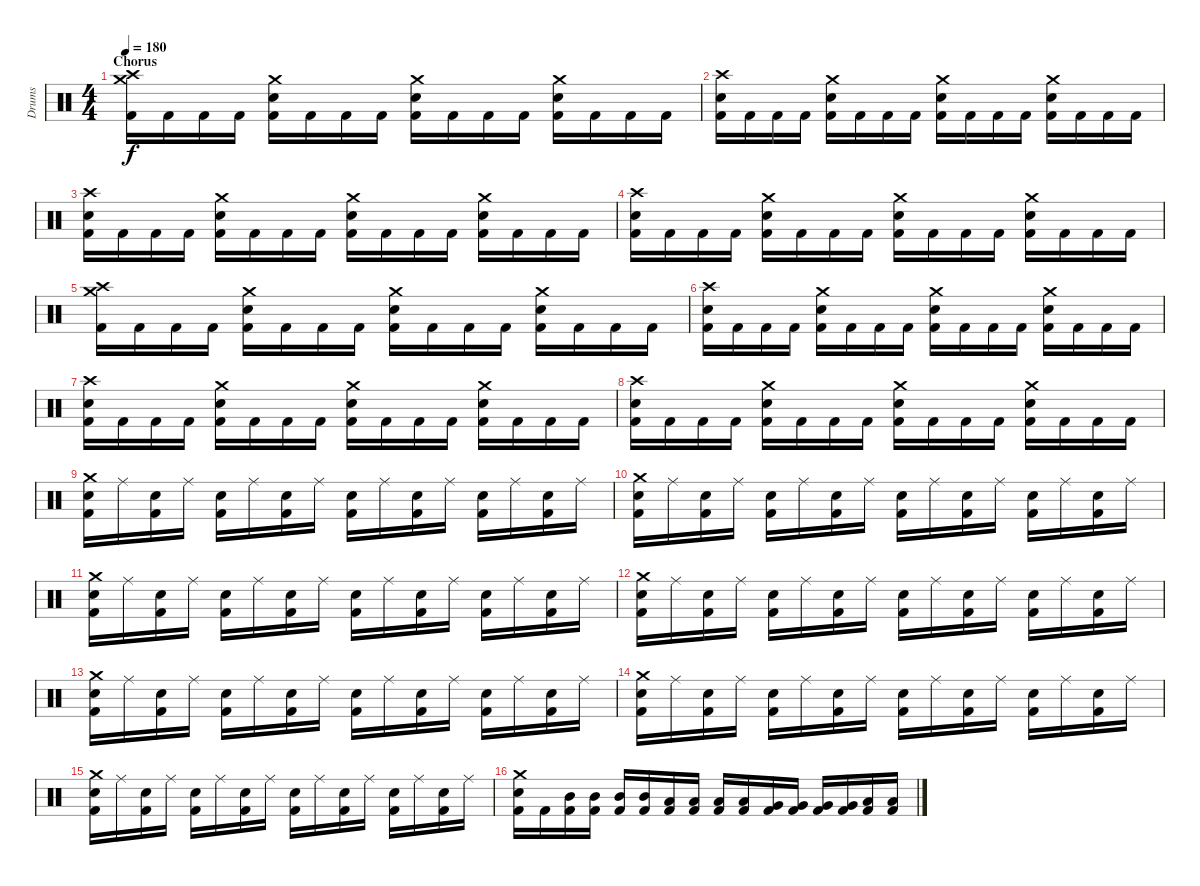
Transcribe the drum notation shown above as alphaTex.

\track ("Drums" "Drums") {instrument percussion}
\staff {score}
\articulation defaults
\ts (4 4)
\section ("" "Chorus")
\tempo 180
\clef neutral
\ks c
("Crash high (hit)" "Crash medium (hit)" "Kick (hit) 2").16{dy f} "Kick (hit) 2".16 "Kick (hit) 2".16 "Kick (hit) 2".16 ("Crash medium (hit)" "Snare (hit) 2" "Kick (hit) 2").16 "Kick (hit) 2".16 "Kick (hit) 2".16 "Kick (hit) 2".16 ("Crash medium (hit)" "Snare (hit) 2" "Kick (hit) 2").16 "Kick (hit) 2".16 "Kick (hit) 2".16 "Kick (hit) 2".16 ("Crash medium (hit)" "Snare (hit) 2" "Kick (hit) 2").16 "Kick (hit) 2".16 "Kick (hit) 2".16 "Kick (hit) 2".16 |
("Crash high (hit)" "Snare (hit) 2" "Kick (hit) 2").16 "Kick (hit) 2".16 "Kick (hit) 2".16 "Kick (hit) 2".16 ("Crash medium (hit)" "Snare (hit) 2" "Kick (hit) 2").16 "Kick (hit) 2".16 "Kick (hit) 2".16 "Kick (hit) 2".16 ("Crash medium (hit)" "Snare (hit) 2" "Kick (hit) 2").16 "Kick (hit) 2".16 "Kick (hit) 2".16 "Kick (hit) 2".16 ("Crash medium (hit)" "Snare (hit) 2" "Kick (hit) 2").16 "Kick (hit) 2".16 "Kick (hit) 2".16 "Kick (hit) 2".16 |
("Crash high (hit)" "Snare (hit) 2" "Kick (hit) 2").16 "Kick (hit) 2".16 "Kick (hit) 2".16 "Kick (hit) 2".16 ("Crash medium (hit)" "Snare (hit) 2" "Kick (hit) 2").16 "Kick (hit) 2".16 "Kick (hit) 2".16 "Kick (hit) 2".16 ("Crash medium (hit)" "Snare (hit) 2" "Kick (hit) 2").16 "Kick (hit) 2".16 "Kick (hit) 2".16 "Kick (hit) 2".16 ("Crash medium (hit)" "Snare (hit) 2" "Kick (hit) 2").16 "Kick (hit) 2".16 "Kick (hit) 2".16 "Kick (hit) 2".16 |
("Crash high (hit)" "Snare (hit) 2" "Kick (hit) 2").16 "Kick (hit) 2".16 "Kick (hit) 2".16 "Kick (hit) 2".16 ("Crash medium (hit)" "Snare (hit) 2" "Kick (hit) 2").16 "Kick (hit) 2".16 "Kick (hit) 2".16 "Kick (hit) 2".16 ("Crash medium (hit)" "Snare (hit) 2" "Kick (hit) 2").16 "Kick (hit) 2".16 "Kick (hit) 2".16 "Kick (hit) 2".16 ("Crash medium (hit)" "Snare (hit) 2" "Kick (hit) 2").16 "Kick (hit) 2".16 "Kick (hit) 2".16 "Kick (hit) 2".16 |
("Crash high (hit)" "Crash medium (hit)" "Kick (hit) 2").16 "Kick (hit) 2".16 "Kick (hit) 2".16 "Kick (hit) 2".16 ("Crash medium (hit)" "Snare (hit) 2" "Kick (hit) 2").16 "Kick (hit) 2".16 "Kick (hit) 2".16 "Kick (hit) 2".16 ("Crash medium (hit)" "Snare (hit) 2" "Kick (hit) 2").16 "Kick (hit) 2".16 "Kick (hit) 2".16 "Kick (hit) 2".16 ("Crash medium (hit)" "Snare (hit) 2" "Kick (hit) 2").16 "Kick (hit) 2".16 "Kick (hit) 2".16 "Kick (hit) 2".16 |
("Crash high (hit)" "Snare (hit) 2" "Kick (hit) 2").16 "Kick (hit) 2".16 "Kick (hit) 2".16 "Kick (hit) 2".16 ("Crash medium (hit)" "Snare (hit) 2" "Kick (hit) 2").16 "Kick (hit) 2".16 "Kick (hit) 2".16 "Kick (hit) 2".16 ("Crash medium (hit)" "Snare (hit) 2" "Kick (hit) 2").16 "Kick (hit) 2".16 "Kick (hit) 2".16 "Kick (hit) 2".16 ("Crash medium (hit)" "Snare (hit) 2" "Kick (hit) 2").16 "Kick (hit) 2".16 "Kick (hit) 2".16 "Kick (hit) 2".16 |
("Crash high (hit)" "Snare (hit) 2" "Kick (hit) 2").16 "Kick (hit) 2".16 "Kick (hit) 2".16 "Kick (hit) 2".16 ("Crash medium (hit)" "Snare (hit) 2" "Kick (hit) 2").16 "Kick (hit) 2".16 "Kick (hit) 2".16 "Kick (hit) 2".16 ("Crash medium (hit)" "Snare (hit) 2" "Kick (hit) 2").16 "Kick (hit) 2".16 "Kick (hit) 2".16 "Kick (hit) 2".16 ("Crash medium (hit)" "Snare (hit) 2" "Kick (hit) 2").16 "Kick (hit) 2".16 "Kick (hit) 2".16 "Kick (hit) 2".16 |
("Crash high (hit)" "Snare (hit) 2" "Kick (hit) 2").16 "Kick (hit) 2".16 "Kick (hit) 2".16 "Kick (hit) 2".16 ("Crash medium (hit)" "Snare (hit) 2" "Kick (hit) 2").16 "Kick (hit) 2".16 "Kick (hit) 2".16 "Kick (hit) 2".16 ("Crash medium (hit)" "Snare (hit) 2" "Kick (hit) 2").16 "Kick (hit) 2".16 "Kick (hit) 2".16 "Kick (hit) 2".16 ("Crash medium (hit)" "Snare (hit) 2" "Kick (hit) 2").16 "Kick (hit) 2".16 "Kick (hit) 2".16 "Kick (hit) 2".16 |
("Crash medium (hit)" "Snare (hit) 2" "Kick (hit) 2").16 "Ride (middle)".16 ("Snare (hit) 2" "Kick (hit) 2").16 "Ride (middle)".16 ("Snare (hit) 2" "Kick (hit) 2").16 "Ride (middle)".16 ("Snare (hit) 2" "Kick (hit) 2").16 "Ride (middle)".16 ("Snare (hit) 2" "Kick (hit) 2").16 "Ride (middle)".16 ("Snare (hit) 2" "Kick (hit) 2").16 "Ride (middle)".16 ("Snare (hit) 2" "Kick (hit) 2").16 "Ride (middle)".16 ("Snare (hit) 2" "Kick (hit) 2").16 "Ride (middle)".16 |
("Crash medium (hit)" "Snare (hit) 2" "Kick (hit) 2").16 "Ride (middle)".16 ("Snare (hit) 2" "Kick (hit) 2").16 "Ride (middle)".16 ("Snare (hit) 2" "Kick (hit) 2").16 "Ride (middle)".16 ("Snare (hit) 2" "Kick (hit) 2").16 "Ride (middle)".16 ("Snare (hit) 2" "Kick (hit) 2").16 "Ride (middle)".16 ("Snare (hit) 2" "Kick (hit) 2").16 "Ride (middle)".16 ("Snare (hit) 2" "Kick (hit) 2").16 "Ride (middle)".16 ("Snare (hit) 2" "Kick (hit) 2").16 "Ride (middle)".16 |
("Crash medium (hit)" "Snare (hit) 2" "Kick (hit) 2").16 "Ride (middle)".16 ("Snare (hit) 2" "Kick (hit) 2").16 "Ride (middle)".16 ("Snare (hit) 2" "Kick (hit) 2").16 "Ride (middle)".16 ("Snare (hit) 2" "Kick (hit) 2").16 "Ride (middle)".16 ("Snare (hit) 2" "Kick (hit) 2").16 "Ride (middle)".16 ("Snare (hit) 2" "Kick (hit) 2").16 "Ride (middle)".16 ("Snare (hit) 2" "Kick (hit) 2").16 "Ride (middle)".16 ("Snare (hit) 2" "Kick (hit) 2").16 "Ride (middle)".16 |
("Crash medium (hit)" "Snare (hit) 2" "Kick (hit) 2").16 "Ride (middle)".16 ("Snare (hit) 2" "Kick (hit) 2").16 "Ride (middle)".16 ("Snare (hit) 2" "Kick (hit) 2").16 "Ride (middle)".16 ("Snare (hit) 2" "Kick (hit) 2").16 "Ride (middle)".16 ("Snare (hit) 2" "Kick (hit) 2").16 "Ride (middle)".16 ("Snare (hit) 2" "Kick (hit) 2").16 "Ride (middle)".16 ("Snare (hit) 2" "Kick (hit) 2").16 "Ride (middle)".16 ("Snare (hit) 2" "Kick (hit) 2").16 "Ride (middle)".16 |
("Crash medium (hit)" "Snare (hit) 2" "Kick (hit) 2").16 "Ride (middle)".16 ("Snare (hit) 2" "Kick (hit) 2").16 "Ride (middle)".16 ("Snare (hit) 2" "Kick (hit) 2").16 "Ride (middle)".16 ("Snare (hit) 2" "Kick (hit) 2").16 "Ride (middle)".16 ("Snare (hit) 2" "Kick (hit) 2").16 "Ride (middle)".16 ("Snare (hit) 2" "Kick (hit) 2").16 "Ride (middle)".16 ("Snare (hit) 2" "Kick (hit) 2").16 "Ride (middle)".16 ("Snare (hit) 2" "Kick (hit) 2").16 "Ride (middle)".16 |
("Crash medium (hit)" "Snare (hit) 2" "Kick (hit) 2").16 "Ride (middle)".16 ("Snare (hit) 2" "Kick (hit) 2").16 "Ride (middle)".16 ("Snare (hit) 2" "Kick (hit) 2").16 "Ride (middle)".16 ("Snare (hit) 2" "Kick (hit) 2").16 "Ride (middle)".16 ("Snare (hit) 2" "Kick (hit) 2").16 "Ride (middle)".16 ("Snare (hit) 2" "Kick (hit) 2").16 "Ride (middle)".16 ("Snare (hit) 2" "Kick (hit) 2").16 "Ride (middle)".16 ("Snare (hit) 2" "Kick (hit) 2").16 "Ride (middle)".16 |
("Crash medium (hit)" "Snare (hit) 2" "Kick (hit) 2").16 "Ride (middle)".16 ("Snare (hit) 2" "Kick (hit) 2").16 "Ride (middle)".16 ("Snare (hit) 2" "Kick (hit) 2").16 "Ride (middle)".16 ("Snare (hit) 2" "Kick (hit) 2").16 "Ride (middle)".16 ("Snare (hit) 2" "Kick (hit) 2").16 "Ride (middle)".16 ("Snare (hit) 2" "Kick (hit) 2").16 "Ride (middle)".16 ("Snare (hit) 2" "Kick (hit) 2").16 "Ride (middle)".16 ("Snare (hit) 2" "Kick (hit) 2").16 "Ride (middle)".16 |
("Crash medium (hit)" "Snare (hit) 2" "Kick (hit) 2").16 "Kick (hit) 2".16 ("Mid Tom (hit)" "Kick (hit) 2").16 ("Mid Tom (hit)" "Kick (hit) 2").16 ("Mid Tom (hit)" "Kick (hit) 2").16 ("Mid Tom (hit)" "Kick (hit) 2").16 ("Low Tom (hit)" "Kick (hit) 2").16 ("Low Tom (hit)" "Kick (hit) 2").16 ("Low Tom (hit)" "Kick (hit) 2").16 ("Low Tom (hit)" "Kick (hit) 2").16 ("Very Low Tom (hit)" "Kick (hit) 2").16 ("Very Low Tom (hit)" "Kick (hit) 2").16 ("Very Low Tom (hit)" "Kick (hit) 2").16 ("Very Low Tom (hit)" "Kick (hit) 2").16 ("Low Floor Tom (hit)" "Kick (hit) 2").16 ("Low Floor Tom (hit)" "Kick (hit) 2").16
